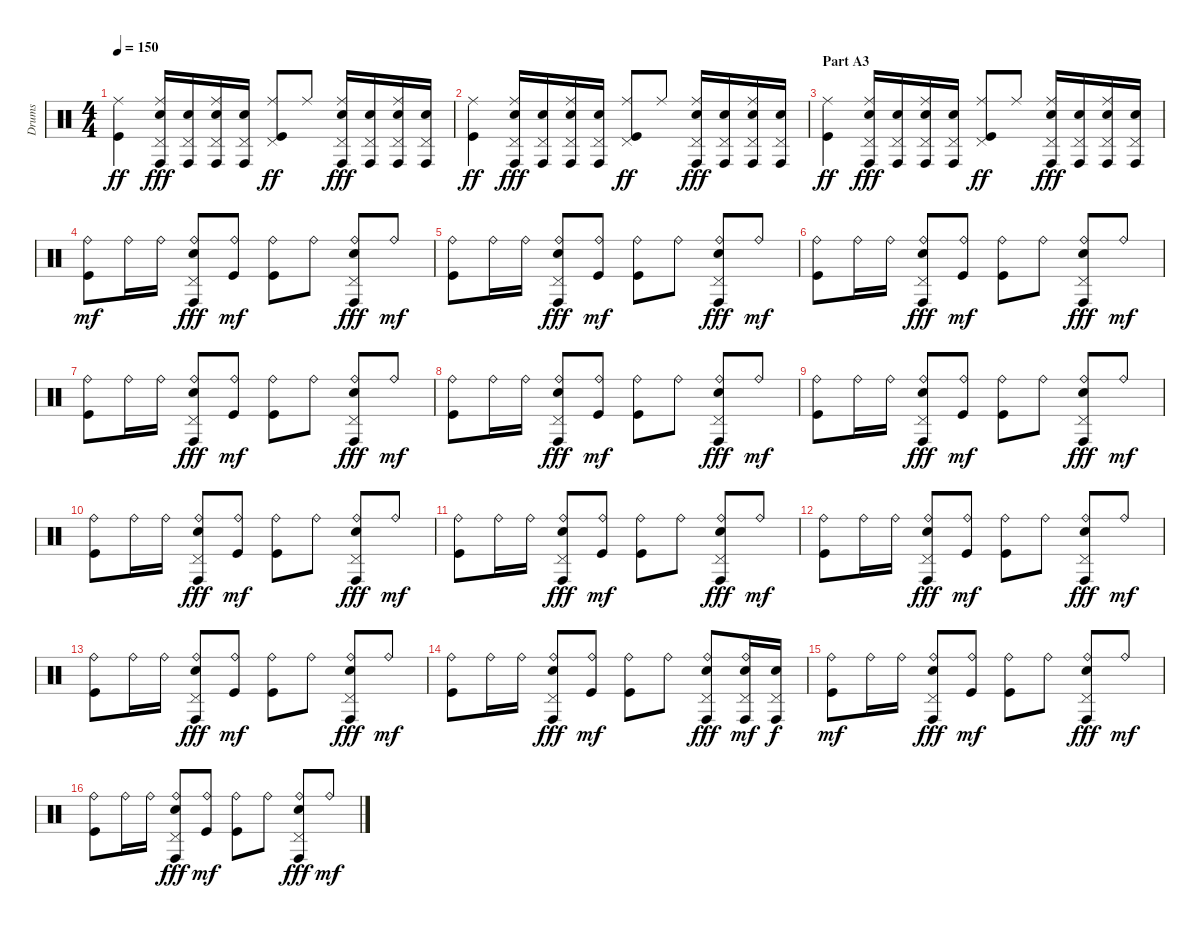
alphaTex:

\track ("Drums" "Drums") {instrument percussion}
\staff {score}
\articulation defaults
\ts (4 4)
\tempo 150
\clef neutral
\ks c
("Ride (middle)" "Kick (hit)").4{dy ff} ("Ride (middle)" "Pedal Hi-Hat (hit)" "Conga high (hit)" "Electric Snare (hit)").16{dy fff} ("Pedal Hi-Hat (hit)" "Conga high (hit)" "Electric Snare (hit)").16 ("Ride (middle)" "Pedal Hi-Hat (hit)" "Conga high (hit)" "Electric Snare (hit)").16 ("Pedal Hi-Hat (hit)" "Conga high (hit)" "Electric Snare (hit)").16 ("Ride (middle)" "Pedal Hi-Hat (hit)" "Kick (hit)").8{dy ff} "Ride (middle)".8 ("Ride (middle)" "Pedal Hi-Hat (hit)" "Conga high (hit)" "Electric Snare (hit)").16{dy fff} ("Pedal Hi-Hat (hit)" "Conga high (hit)" "Electric Snare (hit)").16 ("Ride (middle)" "Pedal Hi-Hat (hit)" "Conga high (hit)" "Electric Snare (hit)").16 ("Pedal Hi-Hat (hit)" "Conga high (hit)" "Electric Snare (hit)").16 |
("Ride (middle)" "Kick (hit)").4{dy ff} ("Ride (middle)" "Pedal Hi-Hat (hit)" "Conga high (hit)" "Electric Snare (hit)").16{dy fff} ("Pedal Hi-Hat (hit)" "Conga high (hit)" "Electric Snare (hit)").16 ("Ride (middle)" "Pedal Hi-Hat (hit)" "Conga high (hit)" "Electric Snare (hit)").16 ("Pedal Hi-Hat (hit)" "Conga high (hit)" "Electric Snare (hit)").16 ("Ride (middle)" "Pedal Hi-Hat (hit)" "Kick (hit)").8{dy ff} "Ride (middle)".8 ("Ride (middle)" "Pedal Hi-Hat (hit)" "Conga high (hit)" "Electric Snare (hit)").16{dy fff} ("Pedal Hi-Hat (hit)" "Conga high (hit)" "Electric Snare (hit)").16 ("Ride (middle)" "Pedal Hi-Hat (hit)" "Conga high (hit)" "Electric Snare (hit)").16 ("Pedal Hi-Hat (hit)" "Conga high (hit)" "Electric Snare (hit)").16 |
\section ("" "Part A3")
("Ride (middle)" "Kick (hit)").4{dy ff} ("Ride (middle)" "Pedal Hi-Hat (hit)" "Conga high (hit)" "Electric Snare (hit)").16{dy fff} ("Pedal Hi-Hat (hit)" "Conga high (hit)" "Electric Snare (hit)").16 ("Ride (middle)" "Pedal Hi-Hat (hit)" "Conga high (hit)" "Electric Snare (hit)").16 ("Pedal Hi-Hat (hit)" "Conga high (hit)" "Electric Snare (hit)").16 ("Ride (middle)" "Pedal Hi-Hat (hit)" "Kick (hit)").8{dy ff} "Ride (middle)".8 ("Ride (middle)" "Pedal Hi-Hat (hit)" "Conga high (hit)" "Electric Snare (hit)").16{dy fff} ("Pedal Hi-Hat (hit)" "Conga high (hit)" "Electric Snare (hit)").16 ("Ride (middle)" "Pedal Hi-Hat (hit)" "Conga high (hit)" "Electric Snare (hit)").16 ("Pedal Hi-Hat (hit)" "Conga high (hit)" "Electric Snare (hit)").16 |
("Ride (bell)" "Kick (hit)").8{dy mf} "Ride (bell)".16 "Ride (bell)".16 ("Ride (bell)" "Pedal Hi-Hat (hit)" "Conga high (hit)" "Electric Snare (hit)").8{dy fff} ("Ride (bell)" "Kick (hit)").8{dy mf} ("Ride (bell)" "Kick (hit)").8 "Ride (bell)".8 ("Ride (bell)" "Pedal Hi-Hat (hit)" "Conga high (hit)" "Electric Snare (hit)").8{dy fff} "Ride (bell)".8{dy mf} |
("Ride (bell)" "Kick (hit)").8 "Ride (bell)".16 "Ride (bell)".16 ("Ride (bell)" "Pedal Hi-Hat (hit)" "Conga high (hit)" "Electric Snare (hit)").8{dy fff} ("Ride (bell)" "Kick (hit)").8{dy mf} ("Ride (bell)" "Kick (hit)").8 "Ride (bell)".8 ("Ride (bell)" "Pedal Hi-Hat (hit)" "Conga high (hit)" "Electric Snare (hit)").8{dy fff} "Ride (bell)".8{dy mf} |
("Ride (bell)" "Kick (hit)").8 "Ride (bell)".16 "Ride (bell)".16 ("Ride (bell)" "Pedal Hi-Hat (hit)" "Conga high (hit)" "Electric Snare (hit)").8{dy fff} ("Ride (bell)" "Kick (hit)").8{dy mf} ("Ride (bell)" "Kick (hit)").8 "Ride (bell)".8 ("Ride (bell)" "Pedal Hi-Hat (hit)" "Conga high (hit)" "Electric Snare (hit)").8{dy fff} "Ride (bell)".8{dy mf} |
("Ride (bell)" "Kick (hit)").8 "Ride (bell)".16 "Ride (bell)".16 ("Ride (bell)" "Pedal Hi-Hat (hit)" "Conga high (hit)" "Electric Snare (hit)").8{dy fff} ("Ride (bell)" "Kick (hit)").8{dy mf} ("Ride (bell)" "Kick (hit)").8 "Ride (bell)".8 ("Ride (bell)" "Pedal Hi-Hat (hit)" "Conga high (hit)" "Electric Snare (hit)").8{dy fff} "Ride (bell)".8{dy mf} |
("Ride (bell)" "Kick (hit)").8 "Ride (bell)".16 "Ride (bell)".16 ("Ride (bell)" "Pedal Hi-Hat (hit)" "Conga high (hit)" "Electric Snare (hit)").8{dy fff} ("Ride (bell)" "Kick (hit)").8{dy mf} ("Ride (bell)" "Kick (hit)").8 "Ride (bell)".8 ("Ride (bell)" "Pedal Hi-Hat (hit)" "Conga high (hit)" "Electric Snare (hit)").8{dy fff} "Ride (bell)".8{dy mf} |
("Ride (bell)" "Kick (hit)").8 "Ride (bell)".16 "Ride (bell)".16 ("Ride (bell)" "Pedal Hi-Hat (hit)" "Conga high (hit)" "Electric Snare (hit)").8{dy fff} ("Ride (bell)" "Kick (hit)").8{dy mf} ("Ride (bell)" "Kick (hit)").8 "Ride (bell)".8 ("Ride (bell)" "Pedal Hi-Hat (hit)" "Conga high (hit)" "Electric Snare (hit)").8{dy fff} "Ride (bell)".8{dy mf} |
("Ride (bell)" "Kick (hit)").8 "Ride (bell)".16 "Ride (bell)".16 ("Ride (bell)" "Pedal Hi-Hat (hit)" "Conga high (hit)" "Electric Snare (hit)").8{dy fff} ("Ride (bell)" "Kick (hit)").8{dy mf} ("Ride (bell)" "Kick (hit)").8 "Ride (bell)".8 ("Ride (bell)" "Pedal Hi-Hat (hit)" "Conga high (hit)" "Electric Snare (hit)").8{dy fff} "Ride (bell)".8{dy mf} |
("Ride (bell)" "Kick (hit)").8 "Ride (bell)".16 "Ride (bell)".16 ("Ride (bell)" "Pedal Hi-Hat (hit)" "Conga high (hit)" "Electric Snare (hit)").8{dy fff} ("Ride (bell)" "Kick (hit)").8{dy mf} ("Ride (bell)" "Kick (hit)").8 "Ride (bell)".8 ("Ride (bell)" "Pedal Hi-Hat (hit)" "Conga high (hit)" "Electric Snare (hit)").8{dy fff} "Ride (bell)".8{dy mf} |
("Ride (bell)" "Kick (hit)").8 "Ride (bell)".16 "Ride (bell)".16 ("Ride (bell)" "Pedal Hi-Hat (hit)" "Conga high (hit)" "Electric Snare (hit)").8{dy fff} ("Ride (bell)" "Kick (hit)").8{dy mf} ("Ride (bell)" "Kick (hit)").8 "Ride (bell)".8 ("Ride (bell)" "Pedal Hi-Hat (hit)" "Conga high (hit)" "Electric Snare (hit)").8{dy fff} "Ride (bell)".8{dy mf} |
("Ride (bell)" "Kick (hit)").8 "Ride (bell)".16 "Ride (bell)".16 ("Ride (bell)" "Pedal Hi-Hat (hit)" "Conga high (hit)" "Electric Snare (hit)").8{dy fff} ("Ride (bell)" "Kick (hit)").8{dy mf} ("Ride (bell)" "Kick (hit)").8 "Ride (bell)".8 ("Ride (bell)" "Pedal Hi-Hat (hit)" "Conga high (hit)" "Electric Snare (hit)").8{dy fff} "Ride (bell)".8{dy mf} |
("Ride (bell)" "Kick (hit)").8 "Ride (bell)".16 "Ride (bell)".16 ("Ride (bell)" "Pedal Hi-Hat (hit)" "Conga high (hit)" "Electric Snare (hit)").8{dy fff} ("Ride (bell)" "Kick (hit)").8{dy mf} ("Ride (bell)" "Kick (hit)").8 "Ride (bell)".8 ("Ride (bell)" "Pedal Hi-Hat (hit)" "Conga high (hit)" "Electric Snare (hit)").8{dy fff} ("Ride (bell)" "Pedal Hi-Hat (hit)" "Conga high (hit)" "Electric Snare (hit)").16{dy mf} ("Pedal Hi-Hat (hit)" "Conga high (hit)" "Electric Snare (hit)").16{dy f} |
("Ride (bell)" "Kick (hit)").8{dy mf} "Ride (bell)".16 "Ride (bell)".16 ("Ride (bell)" "Pedal Hi-Hat (hit)" "Conga high (hit)" "Electric Snare (hit)").8{dy fff} ("Ride (bell)" "Kick (hit)").8{dy mf} ("Ride (bell)" "Kick (hit)").8 "Ride (bell)".8 ("Ride (bell)" "Pedal Hi-Hat (hit)" "Conga high (hit)" "Electric Snare (hit)").8{dy fff} "Ride (bell)".8{dy mf} |
("Ride (bell)" "Kick (hit)").8 "Ride (bell)".16 "Ride (bell)".16 ("Ride (bell)" "Pedal Hi-Hat (hit)" "Conga high (hit)" "Electric Snare (hit)").8{dy fff} ("Ride (bell)" "Kick (hit)").8{dy mf} ("Ride (bell)" "Kick (hit)").8 "Ride (bell)".8 ("Ride (bell)" "Pedal Hi-Hat (hit)" "Conga high (hit)" "Electric Snare (hit)").8{dy fff} "Ride (bell)".8{dy mf}
